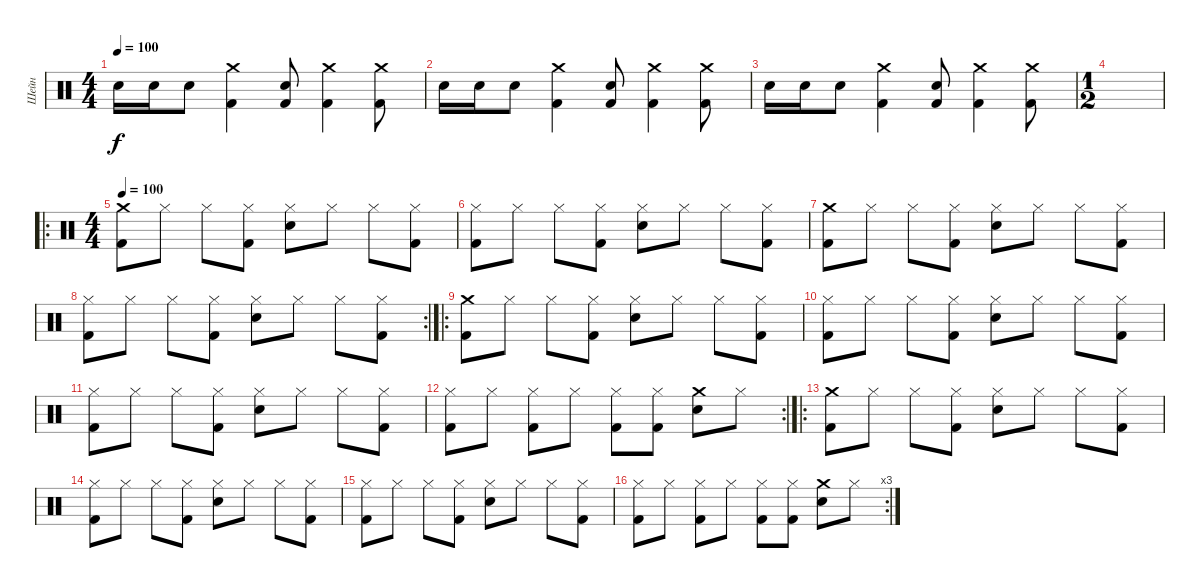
\track ("Шейн" "Шейн") {instrument percussion}
\staff {score}
\articulation defaults
\ts (4 4)
\tempo 100
\clef neutral
\ks c "Snare (hit) 2".16{dy f} "Electric Snare (hit)".16 "Snare (hit) 2".8
("Kick (hit) 2" "Crash medium (hit)").4 ("Electric Snare (hit)" "Kick (hit) 2").8 ("Kick (hit) 2" "Crash medium (hit)").4 ("Kick (hit) 2" "Crash medium (hit)").8 |
"Snare (hit) 2".16 "Electric Snare (hit)".16 "Snare (hit) 2".8 ("Kick (hit) 2" "Crash medium (hit)").4 ("Electric Snare (hit)" "Kick (hit) 2").8 ("Kick (hit) 2" "Crash medium (hit)").4 ("Kick (hit) 2" "Crash medium (hit)").8 |
"Snare (hit) 2".16 "Electric Snare (hit)".16 "Snare (hit) 2".8 ("Kick (hit) 2" "Crash medium (hit)").4 ("Electric Snare (hit)" "Kick (hit) 2").8 ("Kick (hit) 2" "Crash medium (hit)").4 ("Kick (hit) 2" "Crash medium (hit)").8 |
\ts (1 2)
|
\ro
\ts (4 4)
\tempo 100
("Crash medium (hit)" "Kick (hit) 2").8 "Hi-Hat (closed)".8 "Hi-Hat (closed)".8 ("Kick (hit) 2" "Hi-Hat (closed)").8 ("Snare (hit) 2" "Hi-Hat (closed)").8 "Hi-Hat (closed)".8 "Hi-Hat (closed)".8 ("Kick (hit) 2" "Hi-Hat (closed)").8 |
("Kick (hit) 2" "Hi-Hat (closed)").8 "Hi-Hat (closed)".8 "Hi-Hat (closed)".8 ("Kick (hit) 2" "Hi-Hat (closed)").8 ("Snare (hit) 2" "Hi-Hat (closed)").8 "Hi-Hat (closed)".8 "Hi-Hat (closed)".8 ("Kick (hit) 2" "Hi-Hat (closed)").8 |
("Crash medium (hit)" "Kick (hit) 2").8 "Hi-Hat (closed)".8 "Hi-Hat (closed)".8 ("Kick (hit) 2" "Hi-Hat (closed)").8 ("Snare (hit) 2" "Hi-Hat (closed)").8 "Hi-Hat (closed)".8 "Hi-Hat (closed)".8 ("Kick (hit) 2" "Hi-Hat (closed)").8 |
\rc 2
("Kick (hit) 2" "Hi-Hat (closed)").8 "Hi-Hat (closed)".8 "Hi-Hat (closed)".8 ("Kick (hit) 2" "Hi-Hat (closed)").8 ("Snare (hit) 2" "Hi-Hat (closed)").8 "Hi-Hat (closed)".8 "Hi-Hat (closed)".8 ("Kick (hit) 2" "Hi-Hat (closed)").8 |
\ro
("Crash medium (hit)" "Kick (hit) 2").8 "Hi-Hat (closed)".8 "Hi-Hat (closed)".8 ("Kick (hit) 2" "Hi-Hat (closed)").8 ("Snare (hit) 2" "Hi-Hat (closed)").8 "Hi-Hat (closed)".8 "Hi-Hat (closed)".8 ("Kick (hit) 2" "Hi-Hat (closed)").8 |
("Kick (hit) 2" "Hi-Hat (closed)").8 "Hi-Hat (closed)".8 "Hi-Hat (closed)".8 ("Kick (hit) 2" "Hi-Hat (closed)").8 ("Snare (hit) 2" "Hi-Hat (closed)").8 "Hi-Hat (closed)".8 "Hi-Hat (closed)".8 ("Kick (hit) 2" "Hi-Hat (closed)").8 |
("Kick (hit) 2" "Hi-Hat (closed)").8 "Hi-Hat (closed)".8 "Hi-Hat (closed)".8 ("Kick (hit) 2" "Hi-Hat (closed)").8 ("Snare (hit) 2" "Hi-Hat (closed)").8 "Hi-Hat (closed)".8 "Hi-Hat (closed)".8 ("Kick (hit) 2" "Hi-Hat (closed)").8 |
\rc 2
("Kick (hit) 2" "Hi-Hat (closed)").8 "Hi-Hat (closed)".8 ("Kick (hit) 2" "Hi-Hat (closed)").8 "Hi-Hat (closed)".8 ("Kick (hit) 2" "Hi-Hat (closed)").8 ("Kick (hit) 2" "Hi-Hat (closed)").8 ("Snare (hit) 2" "Crash medium (hit)").8 "Hi-Hat (closed)".8 |
\ro
("Crash medium (hit)" "Kick (hit) 2").8 "Hi-Hat (closed)".8 "Hi-Hat (closed)".8 ("Kick (hit) 2" "Hi-Hat (closed)").8 ("Snare (hit) 2" "Hi-Hat (closed)").8 "Hi-Hat (closed)".8 "Hi-Hat (closed)".8 ("Kick (hit) 2" "Hi-Hat (closed)").8 |
("Kick (hit) 2" "Hi-Hat (closed)").8 "Hi-Hat (closed)".8 "Hi-Hat (closed)".8 ("Kick (hit) 2" "Hi-Hat (closed)").8 ("Snare (hit) 2" "Hi-Hat (closed)").8 "Hi-Hat (closed)".8 "Hi-Hat (closed)".8 ("Kick (hit) 2" "Hi-Hat (closed)").8 |
("Kick (hit) 2" "Hi-Hat (closed)").8 "Hi-Hat (closed)".8 "Hi-Hat (closed)".8 ("Kick (hit) 2" "Hi-Hat (closed)").8 ("Snare (hit) 2" "Hi-Hat (closed)").8 "Hi-Hat (closed)".8 "Hi-Hat (closed)".8 ("Kick (hit) 2" "Hi-Hat (closed)").8 |
\rc 3
("Kick (hit) 2" "Hi-Hat (closed)").8 "Hi-Hat (closed)".8 ("Kick (hit) 2" "Hi-Hat (closed)").8 "Hi-Hat (closed)".8 ("Kick (hit) 2" "Hi-Hat (closed)").8 ("Kick (hit) 2" "Hi-Hat (closed)").8 ("Snare (hit) 2" "Crash medium (hit)").8 "Hi-Hat (closed)".8
